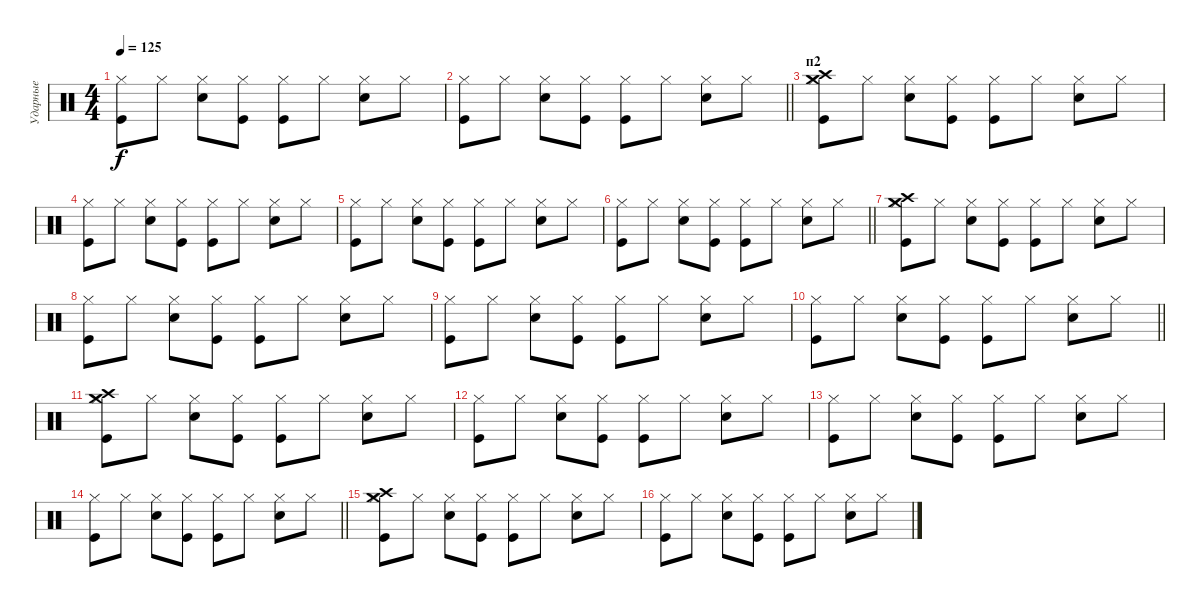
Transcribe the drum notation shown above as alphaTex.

\track ("Ударные" "Ударные") {instrument percussion}
\staff {score}
\articulation defaults
\ts (4 4)
\tempo 125
\clef neutral
\ks c
("Kick (hit)" "Hi-Hat (closed)").8{dy f} "Hi-Hat (closed)".8 ("Snare (hit) 2" "Hi-Hat (closed)").8 ("Kick (hit)" "Hi-Hat (closed)").8 ("Kick (hit)" "Hi-Hat (closed)").8 "Hi-Hat (closed)".8 ("Snare (hit) 2" "Hi-Hat (closed)").8 "Hi-Hat (closed)".8 |
\barLineRight lightlight
("Kick (hit)" "Hi-Hat (closed)").8 "Hi-Hat (closed)".8 ("Snare (hit) 2" "Hi-Hat (closed)").8 ("Kick (hit)" "Hi-Hat (closed)").8 ("Kick (hit)" "Hi-Hat (closed)").8 "Hi-Hat (closed)".8 ("Snare (hit) 2" "Hi-Hat (closed)").8 "Hi-Hat (closed)".8 |
\section ("" "п2")
("Kick (hit)" "Crash high (hit)" "Crash medium (hit)" "Hi-Hat (closed)").8 "Hi-Hat (closed)".8 ("Snare (hit) 2" "Hi-Hat (closed)").8 ("Kick (hit)" "Hi-Hat (closed)").8 ("Kick (hit)" "Hi-Hat (closed)").8 "Hi-Hat (closed)".8 ("Snare (hit) 2" "Hi-Hat (closed)").8 "Hi-Hat (closed)".8 |
("Kick (hit)" "Hi-Hat (closed)").8 "Hi-Hat (closed)".8 ("Snare (hit) 2" "Hi-Hat (closed)").8 ("Kick (hit)" "Hi-Hat (closed)").8 ("Kick (hit)" "Hi-Hat (closed)").8 "Hi-Hat (closed)".8 ("Snare (hit) 2" "Hi-Hat (closed)").8 "Hi-Hat (closed)".8 |
("Kick (hit)" "Hi-Hat (closed)").8 "Hi-Hat (closed)".8 ("Snare (hit) 2" "Hi-Hat (closed)").8 ("Kick (hit)" "Hi-Hat (closed)").8 ("Kick (hit)" "Hi-Hat (closed)").8 "Hi-Hat (closed)".8 ("Snare (hit) 2" "Hi-Hat (closed)").8 "Hi-Hat (closed)".8 |
\barLineRight lightlight
("Kick (hit)" "Hi-Hat (closed)").8 "Hi-Hat (closed)".8 ("Snare (hit) 2" "Hi-Hat (closed)").8 ("Kick (hit)" "Hi-Hat (closed)").8 ("Kick (hit)" "Hi-Hat (closed)").8 "Hi-Hat (closed)".8 ("Snare (hit) 2" "Hi-Hat (closed)").8 "Hi-Hat (closed)".8 |
("Kick (hit)" "Crash high (hit)" "Crash medium (hit)" "Hi-Hat (closed)").8 "Hi-Hat (closed)".8 ("Snare (hit) 2" "Hi-Hat (closed)").8 ("Kick (hit)" "Hi-Hat (closed)").8 ("Kick (hit)" "Hi-Hat (closed)").8 "Hi-Hat (closed)".8 ("Snare (hit) 2" "Hi-Hat (closed)").8 "Hi-Hat (closed)".8 |
("Kick (hit)" "Hi-Hat (closed)").8 "Hi-Hat (closed)".8 ("Snare (hit) 2" "Hi-Hat (closed)").8 ("Kick (hit)" "Hi-Hat (closed)").8 ("Kick (hit)" "Hi-Hat (closed)").8 "Hi-Hat (closed)".8 ("Snare (hit) 2" "Hi-Hat (closed)").8 "Hi-Hat (closed)".8 |
("Kick (hit)" "Hi-Hat (closed)").8 "Hi-Hat (closed)".8 ("Snare (hit) 2" "Hi-Hat (closed)").8 ("Kick (hit)" "Hi-Hat (closed)").8 ("Kick (hit)" "Hi-Hat (closed)").8 "Hi-Hat (closed)".8 ("Snare (hit) 2" "Hi-Hat (closed)").8 "Hi-Hat (closed)".8 |
\barLineRight lightlight
("Kick (hit)" "Hi-Hat (closed)").8 "Hi-Hat (closed)".8 ("Snare (hit) 2" "Hi-Hat (closed)").8 ("Kick (hit)" "Hi-Hat (closed)").8 ("Kick (hit)" "Hi-Hat (closed)").8 "Hi-Hat (closed)".8 ("Snare (hit) 2" "Hi-Hat (closed)").8 "Hi-Hat (closed)".8 |
("Kick (hit)" "Crash high (hit)" "Crash medium (hit)" "Hi-Hat (closed)").8 "Hi-Hat (closed)".8 ("Snare (hit) 2" "Hi-Hat (closed)").8 ("Kick (hit)" "Hi-Hat (closed)").8 ("Kick (hit)" "Hi-Hat (closed)").8 "Hi-Hat (closed)".8 ("Snare (hit) 2" "Hi-Hat (closed)").8 "Hi-Hat (closed)".8 |
("Kick (hit)" "Hi-Hat (closed)").8 "Hi-Hat (closed)".8 ("Snare (hit) 2" "Hi-Hat (closed)").8 ("Kick (hit)" "Hi-Hat (closed)").8 ("Kick (hit)" "Hi-Hat (closed)").8 "Hi-Hat (closed)".8 ("Snare (hit) 2" "Hi-Hat (closed)").8 "Hi-Hat (closed)".8 |
("Kick (hit)" "Hi-Hat (closed)").8 "Hi-Hat (closed)".8 ("Snare (hit) 2" "Hi-Hat (closed)").8 ("Kick (hit)" "Hi-Hat (closed)").8 ("Kick (hit)" "Hi-Hat (closed)").8 "Hi-Hat (closed)".8 ("Snare (hit) 2" "Hi-Hat (closed)").8 "Hi-Hat (closed)".8 |
\barLineRight lightlight
("Kick (hit)" "Hi-Hat (closed)").8 "Hi-Hat (closed)".8 ("Snare (hit) 2" "Hi-Hat (closed)").8 ("Kick (hit)" "Hi-Hat (closed)").8 ("Kick (hit)" "Hi-Hat (closed)").8 "Hi-Hat (closed)".8 ("Snare (hit) 2" "Hi-Hat (closed)").8 "Hi-Hat (closed)".8 |
("Kick (hit)" "Crash high (hit)" "Crash medium (hit)" "Hi-Hat (closed)").8 "Hi-Hat (closed)".8 ("Snare (hit) 2" "Hi-Hat (closed)").8 ("Kick (hit)" "Hi-Hat (closed)").8 ("Kick (hit)" "Hi-Hat (closed)").8 "Hi-Hat (closed)".8 ("Snare (hit) 2" "Hi-Hat (closed)").8 "Hi-Hat (closed)".8 |
("Kick (hit)" "Hi-Hat (closed)").8 "Hi-Hat (closed)".8 ("Snare (hit) 2" "Hi-Hat (closed)").8 ("Kick (hit)" "Hi-Hat (closed)").8 ("Kick (hit)" "Hi-Hat (closed)").8 "Hi-Hat (closed)".8 ("Snare (hit) 2" "Hi-Hat (closed)").8 "Hi-Hat (closed)".8
